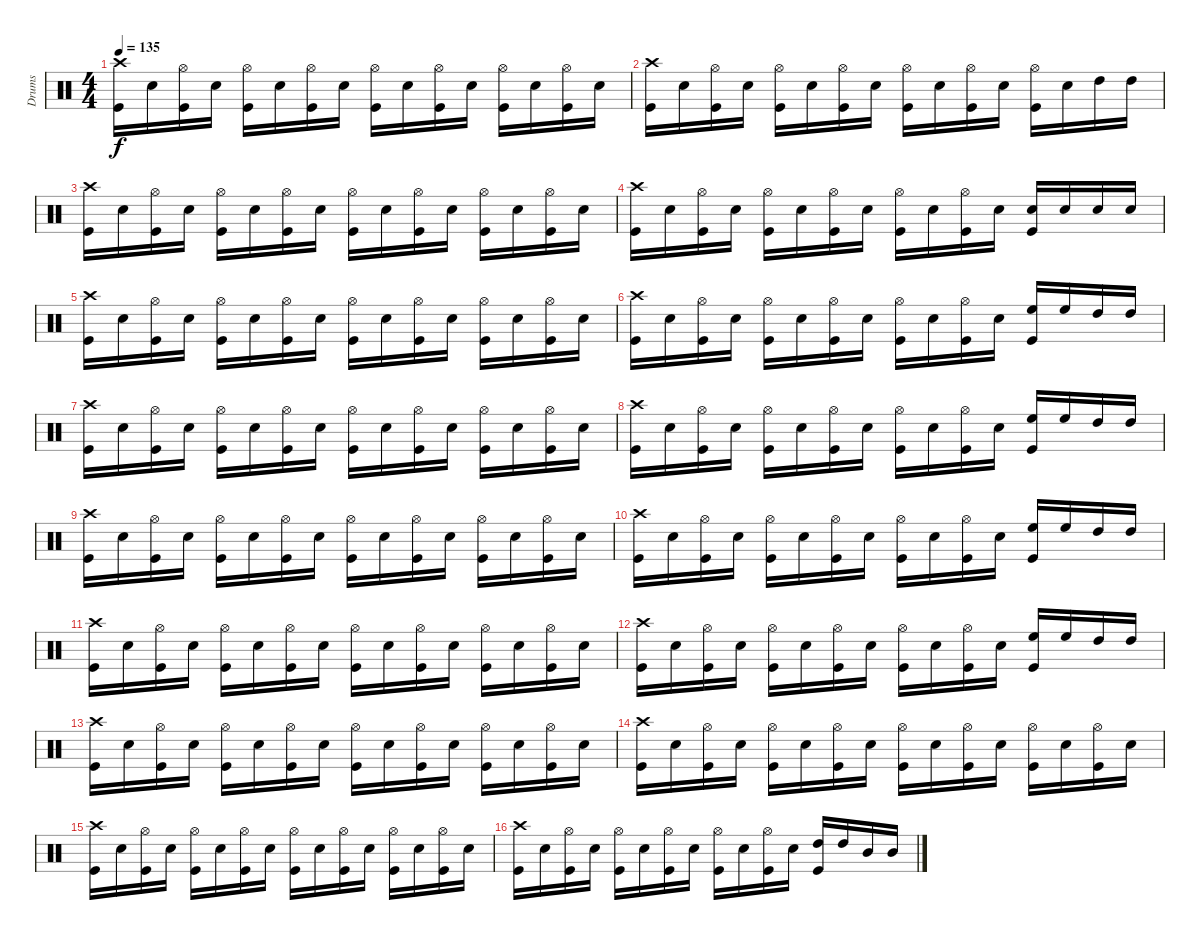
\track ("Drums" "Drums") {instrument percussion}
\staff {score}
\articulation defaults
\ts (4 4)
\tempo 135
\clef neutral
\ks c
("Crash high (hit)" "Kick (hit)").16{dy f} "Snare (hit) 2".16 ("Hi-Hat (open)" "Kick (hit)").16 "Snare (hit) 2".16 ("Hi-Hat (open)" "Kick (hit)").16 "Snare (hit) 2".16 ("Hi-Hat (open)" "Kick (hit)").16 "Snare (hit) 2".16 ("Hi-Hat (open)" "Kick (hit)").16 "Snare (hit) 2".16 ("Hi-Hat (open)" "Kick (hit)").16 "Snare (hit) 2".16 ("Hi-Hat (open)" "Kick (hit)").16 "Snare (hit) 2".16 ("Hi-Hat (open)" "Kick (hit)").16 "Snare (hit) 2".16 |
("Crash high (hit)" "Kick (hit)").16 "Snare (hit) 2".16 ("Hi-Hat (open)" "Kick (hit)").16 "Snare (hit) 2".16 ("Hi-Hat (open)" "Kick (hit)").16 "Snare (hit) 2".16 ("Hi-Hat (open)" "Kick (hit)").16 "Snare (hit) 2".16 ("Hi-Hat (open)" "Kick (hit)").16 "Snare (hit) 2".16 ("Hi-Hat (open)" "Kick (hit)").16 "Snare (hit) 2".16 ("Hi-Hat (open)" "Kick (hit)").16 "Snare (hit) 2".16 "High Tom (hit)".16 "High Tom (hit)".16 |
("Crash high (hit)" "Kick (hit)").16 "Snare (hit) 2".16 ("Hi-Hat (open)" "Kick (hit)").16 "Snare (hit) 2".16 ("Hi-Hat (open)" "Kick (hit)").16 "Snare (hit) 2".16 ("Hi-Hat (open)" "Kick (hit)").16 "Snare (hit) 2".16 ("Hi-Hat (open)" "Kick (hit)").16 "Snare (hit) 2".16 ("Hi-Hat (open)" "Kick (hit)").16 "Snare (hit) 2".16 ("Hi-Hat (open)" "Kick (hit)").16 "Snare (hit) 2".16 ("Hi-Hat (open)" "Kick (hit)").16 "Snare (hit) 2".16 |
("Crash high (hit)" "Kick (hit)").16 "Snare (hit) 2".16 ("Hi-Hat (open)" "Kick (hit)").16 "Snare (hit) 2".16 ("Hi-Hat (open)" "Kick (hit)").16 "Snare (hit) 2".16 ("Hi-Hat (open)" "Kick (hit)").16 "Snare (hit) 2".16 ("Hi-Hat (open)" "Kick (hit)").16 "Snare (hit) 2".16 ("Hi-Hat (open)" "Kick (hit)").16 "Snare (hit) 2".16 ("Snare (hit) 2" "Kick (hit)").16 "Snare (hit) 2".16 "Snare (hit) 2".16 "Snare (hit) 2".16 |
("Crash high (hit)" "Kick (hit)").16 "Snare (hit) 2".16 ("Hi-Hat (open)" "Kick (hit)").16 "Snare (hit) 2".16 ("Hi-Hat (open)" "Kick (hit)").16 "Snare (hit) 2".16 ("Hi-Hat (open)" "Kick (hit)").16 "Snare (hit) 2".16 ("Hi-Hat (open)" "Kick (hit)").16 "Snare (hit) 2".16 ("Hi-Hat (open)" "Kick (hit)").16 "Snare (hit) 2".16 ("Hi-Hat (open)" "Kick (hit)").16 "Snare (hit) 2".16 ("Hi-Hat (open)" "Kick (hit)").16 "Snare (hit) 2".16 |
("Crash high (hit)" "Kick (hit)").16 "Snare (hit) 2".16 ("Hi-Hat (open)" "Kick (hit)").16 "Snare (hit) 2".16 ("Hi-Hat (open)" "Kick (hit)").16 "Snare (hit) 2".16 ("Hi-Hat (open)" "Kick (hit)").16 "Snare (hit) 2".16 ("Hi-Hat (open)" "Kick (hit)").16 "Snare (hit) 2".16 ("Hi-Hat (open)" "Kick (hit)").16 "Snare (hit) 2".16 ("High Floor Tom (hit)" "Kick (hit)").16 "High Floor Tom (hit)".16 "High Tom (hit)".16 "High Tom (hit)".16 |
("Crash high (hit)" "Kick (hit)").16 "Snare (hit) 2".16 ("Hi-Hat (open)" "Kick (hit)").16 "Snare (hit) 2".16 ("Hi-Hat (open)" "Kick (hit)").16 "Snare (hit) 2".16 ("Hi-Hat (open)" "Kick (hit)").16 "Snare (hit) 2".16 ("Hi-Hat (open)" "Kick (hit)").16 "Snare (hit) 2".16 ("Hi-Hat (open)" "Kick (hit)").16 "Snare (hit) 2".16 ("Hi-Hat (open)" "Kick (hit)").16 "Snare (hit) 2".16 ("Hi-Hat (open)" "Kick (hit)").16 "Snare (hit) 2".16 |
("Crash high (hit)" "Kick (hit)").16 "Snare (hit) 2".16 ("Hi-Hat (open)" "Kick (hit)").16 "Snare (hit) 2".16 ("Hi-Hat (open)" "Kick (hit)").16 "Snare (hit) 2".16 ("Hi-Hat (open)" "Kick (hit)").16 "Snare (hit) 2".16 ("Hi-Hat (open)" "Kick (hit)").16 "Snare (hit) 2".16 ("Hi-Hat (open)" "Kick (hit)").16 "Snare (hit) 2".16 ("High Floor Tom (hit)" "Kick (hit)").16 "High Floor Tom (hit)".16 "High Tom (hit)".16 "High Tom (hit)".16 |
("Crash high (hit)" "Kick (hit)").16 "Snare (hit) 2".16 ("Hi-Hat (open)" "Kick (hit)").16 "Snare (hit) 2".16 ("Hi-Hat (open)" "Kick (hit)").16 "Snare (hit) 2".16 ("Hi-Hat (open)" "Kick (hit)").16 "Snare (hit) 2".16 ("Hi-Hat (open)" "Kick (hit)").16 "Snare (hit) 2".16 ("Hi-Hat (open)" "Kick (hit)").16 "Snare (hit) 2".16 ("Hi-Hat (open)" "Kick (hit)").16 "Snare (hit) 2".16 ("Hi-Hat (open)" "Kick (hit)").16 "Snare (hit) 2".16 |
("Crash high (hit)" "Kick (hit)").16 "Snare (hit) 2".16 ("Hi-Hat (open)" "Kick (hit)").16 "Snare (hit) 2".16 ("Hi-Hat (open)" "Kick (hit)").16 "Snare (hit) 2".16 ("Hi-Hat (open)" "Kick (hit)").16 "Snare (hit) 2".16 ("Hi-Hat (open)" "Kick (hit)").16 "Snare (hit) 2".16 ("Hi-Hat (open)" "Kick (hit)").16 "Snare (hit) 2".16 ("High Floor Tom (hit)" "Kick (hit)").16 "High Floor Tom (hit)".16 "High Tom (hit)".16 "High Tom (hit)".16 |
("Crash high (hit)" "Kick (hit)").16 "Snare (hit) 2".16 ("Hi-Hat (open)" "Kick (hit)").16 "Snare (hit) 2".16 ("Hi-Hat (open)" "Kick (hit)").16 "Snare (hit) 2".16 ("Hi-Hat (open)" "Kick (hit)").16 "Snare (hit) 2".16 ("Hi-Hat (open)" "Kick (hit)").16 "Snare (hit) 2".16 ("Hi-Hat (open)" "Kick (hit)").16 "Snare (hit) 2".16 ("Hi-Hat (open)" "Kick (hit)").16 "Snare (hit) 2".16 ("Hi-Hat (open)" "Kick (hit)").16 "Snare (hit) 2".16 |
("Crash high (hit)" "Kick (hit)").16 "Snare (hit) 2".16 ("Hi-Hat (open)" "Kick (hit)").16 "Snare (hit) 2".16 ("Hi-Hat (open)" "Kick (hit)").16 "Snare (hit) 2".16 ("Hi-Hat (open)" "Kick (hit)").16 "Snare (hit) 2".16 ("Hi-Hat (open)" "Kick (hit)").16 "Snare (hit) 2".16 ("Hi-Hat (open)" "Kick (hit)").16 "Snare (hit) 2".16 ("High Floor Tom (hit)" "Kick (hit)").16 "High Floor Tom (hit)".16 "High Tom (hit)".16 "High Tom (hit)".16 |
("Crash high (hit)" "Kick (hit)").16 "Snare (hit) 2".16 ("Hi-Hat (open)" "Kick (hit)").16 "Snare (hit) 2".16 ("Hi-Hat (open)" "Kick (hit)").16 "Snare (hit) 2".16 ("Hi-Hat (open)" "Kick (hit)").16 "Snare (hit) 2".16 ("Hi-Hat (open)" "Kick (hit)").16 "Snare (hit) 2".16 ("Hi-Hat (open)" "Kick (hit)").16 "Snare (hit) 2".16 ("Hi-Hat (open)" "Kick (hit)").16 "Snare (hit) 2".16 ("Hi-Hat (open)" "Kick (hit)").16 "Snare (hit) 2".16 |
("Crash high (hit)" "Kick (hit)").16 "Snare (hit) 2".16 ("Hi-Hat (open)" "Kick (hit)").16 "Snare (hit) 2".16 ("Hi-Hat (open)" "Kick (hit)").16 "Snare (hit) 2".16 ("Hi-Hat (open)" "Kick (hit)").16 "Snare (hit) 2".16 ("Hi-Hat (open)" "Kick (hit)").16 "Snare (hit) 2".16 ("Hi-Hat (open)" "Kick (hit)").16 "Snare (hit) 2".16 ("Hi-Hat (open)" "Kick (hit)").16 "Snare (hit) 2".16 ("Hi-Hat (open)" "Kick (hit)").16 "Snare (hit) 2".16 |
("Crash high (hit)" "Kick (hit)").16 "Snare (hit) 2".16 ("Hi-Hat (open)" "Kick (hit)").16 "Snare (hit) 2".16 ("Hi-Hat (open)" "Kick (hit)").16 "Snare (hit) 2".16 ("Hi-Hat (open)" "Kick (hit)").16 "Snare (hit) 2".16 ("Hi-Hat (open)" "Kick (hit)").16 "Snare (hit) 2".16 ("Hi-Hat (open)" "Kick (hit)").16 "Snare (hit) 2".16 ("Hi-Hat (open)" "Kick (hit)").16 "Snare (hit) 2".16 ("Hi-Hat (open)" "Kick (hit)").16 "Snare (hit) 2".16 |
("Crash high (hit)" "Kick (hit)").16 "Snare (hit) 2".16 ("Hi-Hat (open)" "Kick (hit)").16 "Snare (hit) 2".16 ("Hi-Hat (open)" "Kick (hit)").16 "Snare (hit) 2".16 ("Hi-Hat (open)" "Kick (hit)").16 "Snare (hit) 2".16 ("Hi-Hat (open)" "Kick (hit)").16 "Snare (hit) 2".16 ("Hi-Hat (open)" "Kick (hit)").16 "Snare (hit) 2".16 ("High Tom (hit)" "Kick (hit)").16 "High Tom (hit)".16 "Mid Tom (hit)".16 "Mid Tom (hit)".16
